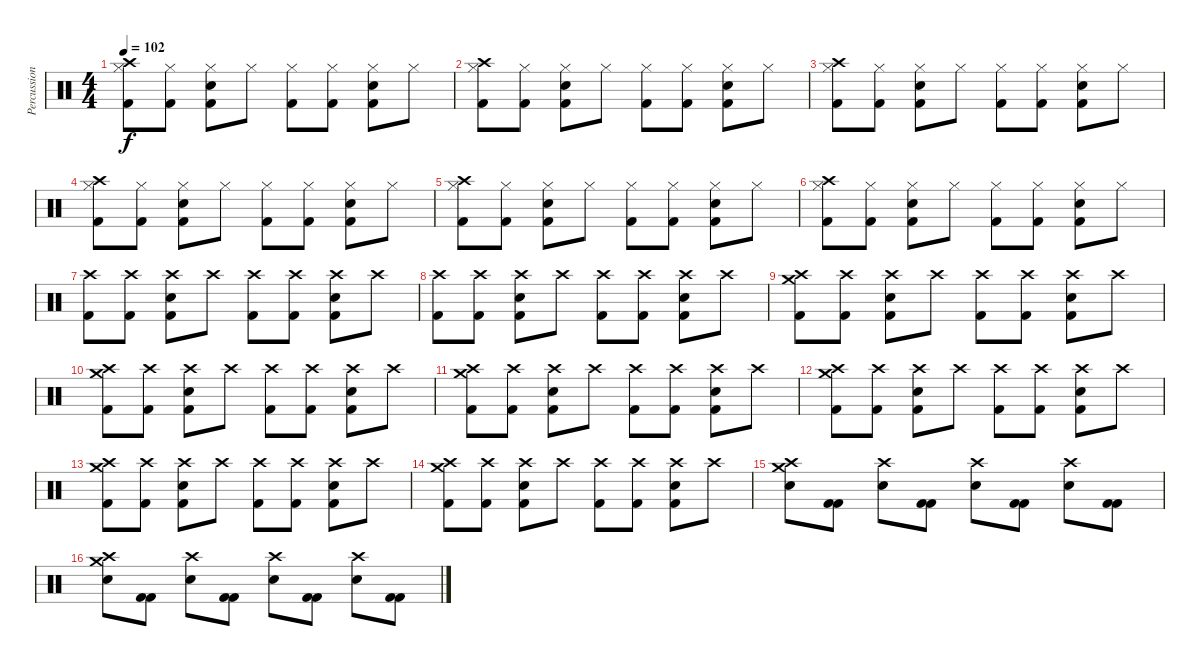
\track ("Percussion" "Percussion") {instrument percussion}
\staff {score}
\articulation defaults
\ts (4 4)
\tempo 102
\clef neutral
\ks c
("Kick (hit) 2" "Hi-Hat (closed)" "Crash high (hit)").8{dy f} ("Kick (hit) 2" "Hi-Hat (closed)").8 ("Kick (hit) 2" "Snare (hit) 2" "Hi-Hat (closed)").8 "Hi-Hat (closed)".8 ("Kick (hit) 2" "Hi-Hat (closed)").8 ("Kick (hit) 2" "Hi-Hat (closed)").8 ("Kick (hit) 2" "Snare (hit) 2" "Hi-Hat (closed)").8 "Hi-Hat (closed)".8 |
("Kick (hit) 2" "Hi-Hat (closed)" "Crash high (hit)").8 ("Kick (hit) 2" "Hi-Hat (closed)").8 ("Kick (hit) 2" "Snare (hit) 2" "Hi-Hat (closed)").8 "Hi-Hat (closed)".8 ("Kick (hit) 2" "Hi-Hat (closed)").8 ("Kick (hit) 2" "Hi-Hat (closed)").8 ("Kick (hit) 2" "Snare (hit) 2" "Hi-Hat (closed)").8 "Hi-Hat (closed)".8 |
("Kick (hit) 2" "Hi-Hat (closed)" "Crash high (hit)").8 ("Kick (hit) 2" "Hi-Hat (closed)").8 ("Kick (hit) 2" "Snare (hit) 2" "Hi-Hat (closed)").8 "Hi-Hat (closed)".8 ("Kick (hit) 2" "Hi-Hat (closed)").8 ("Kick (hit) 2" "Hi-Hat (closed)").8 ("Kick (hit) 2" "Snare (hit) 2" "Hi-Hat (closed)").8 "Hi-Hat (closed)".8 |
("Kick (hit) 2" "Hi-Hat (closed)" "Crash high (hit)").8 ("Kick (hit) 2" "Hi-Hat (closed)").8 ("Kick (hit) 2" "Snare (hit) 2" "Hi-Hat (closed)").8 "Hi-Hat (closed)".8 ("Kick (hit) 2" "Hi-Hat (closed)").8 ("Kick (hit) 2" "Hi-Hat (closed)").8 ("Kick (hit) 2" "Snare (hit) 2" "Hi-Hat (closed)").8 "Hi-Hat (closed)".8 |
("Kick (hit) 2" "Hi-Hat (closed)" "Crash high (hit)").8 ("Kick (hit) 2" "Hi-Hat (closed)").8 ("Kick (hit) 2" "Snare (hit) 2" "Hi-Hat (closed)").8 "Hi-Hat (closed)".8 ("Kick (hit) 2" "Hi-Hat (closed)").8 ("Kick (hit) 2" "Hi-Hat (closed)").8 ("Kick (hit) 2" "Snare (hit) 2" "Hi-Hat (closed)").8 "Hi-Hat (closed)".8 |
("Kick (hit) 2" "Hi-Hat (closed)" "Crash high (hit)").8 ("Kick (hit) 2" "Hi-Hat (closed)").8 ("Kick (hit) 2" "Snare (hit) 2" "Hi-Hat (closed)").8 "Hi-Hat (closed)".8 ("Kick (hit) 2" "Hi-Hat (closed)").8 ("Kick (hit) 2" "Hi-Hat (closed)").8 ("Kick (hit) 2" "Snare (hit) 2" "Hi-Hat (closed)").8 "Hi-Hat (closed)".8 |
("Kick (hit) 2" "Crash high (hit)").8 ("Kick (hit) 2" "Crash high (hit)").8 ("Kick (hit) 2" "Snare (hit) 2" "Crash high (hit)").8 "Crash high (hit)".8 ("Kick (hit) 2" "Crash high (hit)").8 ("Kick (hit) 2" "Crash high (hit)").8 ("Kick (hit) 2" "Snare (hit) 2" "Crash high (hit)").8 "Crash high (hit)".8 |
("Kick (hit) 2" "Crash high (hit)").8 ("Kick (hit) 2" "Crash high (hit)").8 ("Kick (hit) 2" "Snare (hit) 2" "Crash high (hit)").8 "Crash high (hit)".8 ("Kick (hit) 2" "Crash high (hit)").8 ("Kick (hit) 2" "Crash high (hit)").8 ("Kick (hit) 2" "Snare (hit) 2" "Crash high (hit)").8 "Crash high (hit)".8 |
("Kick (hit) 2" "Crash medium (hit)" "Crash high (hit)").8 ("Kick (hit) 2" "Crash high (hit)").8 ("Kick (hit) 2" "Snare (hit) 2" "Crash high (hit)").8 "Crash high (hit)".8 ("Kick (hit) 2" "Crash high (hit)").8 ("Kick (hit) 2" "Crash high (hit)").8 ("Kick (hit) 2" "Snare (hit) 2" "Crash high (hit)").8 "Crash high (hit)".8 |
("Kick (hit) 2" "Crash medium (hit)" "Crash high (hit)").8 ("Kick (hit) 2" "Crash high (hit)").8 ("Kick (hit) 2" "Snare (hit) 2" "Crash high (hit)").8 "Crash high (hit)".8 ("Kick (hit) 2" "Crash high (hit)").8 ("Kick (hit) 2" "Crash high (hit)").8 ("Kick (hit) 2" "Snare (hit) 2" "Crash high (hit)").8 "Crash high (hit)".8 |
("Kick (hit) 2" "Crash medium (hit)" "Crash high (hit)").8 ("Kick (hit) 2" "Crash high (hit)").8 ("Kick (hit) 2" "Snare (hit) 2" "Crash high (hit)").8 "Crash high (hit)".8 ("Kick (hit) 2" "Crash high (hit)").8 ("Kick (hit) 2" "Crash high (hit)").8 ("Kick (hit) 2" "Snare (hit) 2" "Crash high (hit)").8 "Crash high (hit)".8 |
("Kick (hit) 2" "Crash medium (hit)" "Crash high (hit)").8 ("Kick (hit) 2" "Crash high (hit)").8 ("Kick (hit) 2" "Snare (hit) 2" "Crash high (hit)").8 "Crash high (hit)".8 ("Kick (hit) 2" "Crash high (hit)").8 ("Kick (hit) 2" "Crash high (hit)").8 ("Kick (hit) 2" "Snare (hit) 2" "Crash high (hit)").8 "Crash high (hit)".8 |
("Kick (hit) 2" "Crash medium (hit)" "Crash high (hit)").8 ("Kick (hit) 2" "Crash high (hit)").8 ("Kick (hit) 2" "Snare (hit) 2" "Crash high (hit)").8 "Crash high (hit)".8 ("Kick (hit) 2" "Crash high (hit)").8 ("Kick (hit) 2" "Crash high (hit)").8 ("Kick (hit) 2" "Snare (hit) 2" "Crash high (hit)").8 "Crash high (hit)".8 |
("Kick (hit) 2" "Crash medium (hit)" "Crash high (hit)").8 ("Kick (hit) 2" "Crash high (hit)").8 ("Kick (hit) 2" "Snare (hit) 2" "Crash high (hit)").8 "Crash high (hit)".8 ("Kick (hit) 2" "Crash high (hit)").8 ("Kick (hit) 2" "Crash high (hit)").8 ("Kick (hit) 2" "Snare (hit) 2" "Crash high (hit)").8 "Crash high (hit)".8 |
("Snare (hit) 2" "Crash high (hit)" "Crash medium (hit)").8 ("Kick (hit) 2" "Kick (hit) 2").8 ("Snare (hit) 2" "Crash high (hit)").8 ("Kick (hit) 2" "Kick (hit) 2").8 ("Snare (hit) 2" "Crash high (hit)").8 ("Kick (hit) 2" "Kick (hit) 2").8 ("Snare (hit) 2" "Crash high (hit)").8 ("Kick (hit) 2" "Kick (hit) 2").8 |
("Snare (hit) 2" "Crash high (hit)" "Crash medium (hit)").8 ("Kick (hit) 2" "Kick (hit) 2").8 ("Snare (hit) 2" "Crash high (hit)").8 ("Kick (hit) 2" "Kick (hit) 2").8 ("Snare (hit) 2" "Crash high (hit)").8 ("Kick (hit) 2" "Kick (hit) 2").8 ("Snare (hit) 2" "Crash high (hit)").8 ("Kick (hit) 2" "Kick (hit) 2").8
